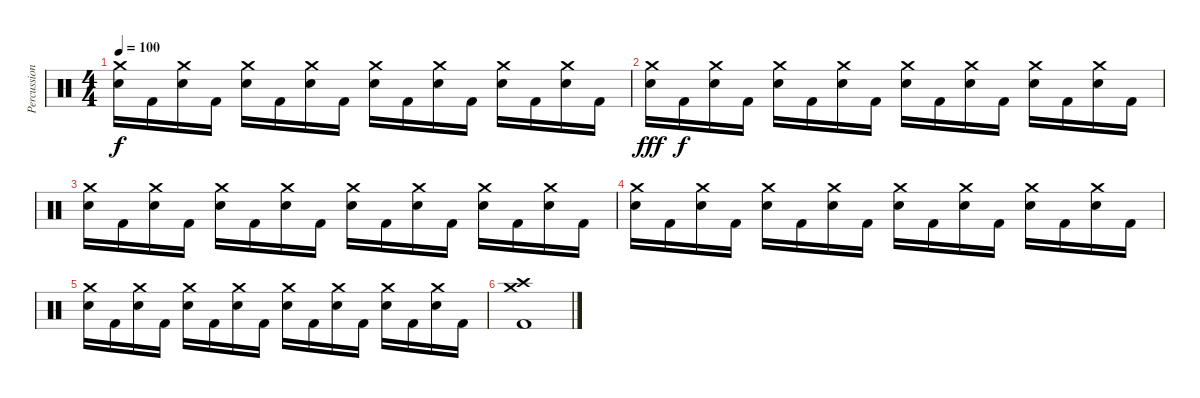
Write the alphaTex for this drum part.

\track ("Percussion" "Percussion") {instrument percussion}
\staff {score}
\articulation defaults
\ts (4 4)
\tempo 100
\clef neutral
\ks c
("Crash medium (hit)" "Snare (hit) 2").16{dy f} "Kick (hit) 2".16 ("Crash medium (hit)" "Snare (hit) 2").16 "Kick (hit) 2".16 ("Crash medium (hit)" "Snare (hit) 2").16 "Kick (hit) 2".16 ("Crash medium (hit)" "Snare (hit) 2").16 "Kick (hit) 2".16 ("Crash medium (hit)" "Snare (hit) 2").16 "Kick (hit) 2".16 ("Crash medium (hit)" "Snare (hit) 2").16 "Kick (hit) 2".16 ("Crash medium (hit)" "Snare (hit) 2").16 "Kick (hit) 2".16 ("Crash medium (hit)" "Snare (hit) 2").16 "Kick (hit) 2".16 |
("Crash medium (hit)" "Snare (hit) 2").16{dy fff} "Kick (hit) 2".16{dy f} ("Crash medium (hit)" "Snare (hit) 2").16 "Kick (hit) 2".16 ("Crash medium (hit)" "Snare (hit) 2").16 "Kick (hit) 2".16 ("Crash medium (hit)" "Snare (hit) 2").16 "Kick (hit) 2".16 ("Crash medium (hit)" "Snare (hit) 2").16 "Kick (hit) 2".16 ("Crash medium (hit)" "Snare (hit) 2").16 "Kick (hit) 2".16 ("Crash medium (hit)" "Snare (hit) 2").16 "Kick (hit) 2".16 ("Crash medium (hit)" "Snare (hit) 2").16 "Kick (hit) 2".16 |
("Crash medium (hit)" "Snare (hit) 2").16 "Kick (hit) 2".16 ("Crash medium (hit)" "Snare (hit) 2").16 "Kick (hit) 2".16 ("Crash medium (hit)" "Snare (hit) 2").16 "Kick (hit) 2".16 ("Crash medium (hit)" "Snare (hit) 2").16 "Kick (hit) 2".16 ("Crash medium (hit)" "Snare (hit) 2").16 "Kick (hit) 2".16 ("Crash medium (hit)" "Snare (hit) 2").16 "Kick (hit) 2".16 ("Crash medium (hit)" "Snare (hit) 2").16 "Kick (hit) 2".16 ("Crash medium (hit)" "Snare (hit) 2").16 "Kick (hit) 2".16 |
("Crash medium (hit)" "Snare (hit) 2").16 "Kick (hit) 2".16 ("Crash medium (hit)" "Snare (hit) 2").16 "Kick (hit) 2".16 ("Crash medium (hit)" "Snare (hit) 2").16 "Kick (hit) 2".16 ("Crash medium (hit)" "Snare (hit) 2").16 "Kick (hit) 2".16 ("Crash medium (hit)" "Snare (hit) 2").16 "Kick (hit) 2".16 ("Crash medium (hit)" "Snare (hit) 2").16 "Kick (hit) 2".16 ("Crash medium (hit)" "Snare (hit) 2").16 "Kick (hit) 2".16 ("Crash medium (hit)" "Snare (hit) 2").16 "Kick (hit) 2".16 |
("Crash medium (hit)" "Snare (hit) 2").16 "Kick (hit) 2".16 ("Crash medium (hit)" "Snare (hit) 2").16 "Kick (hit) 2".16 ("Crash medium (hit)" "Snare (hit) 2").16 "Kick (hit) 2".16 ("Crash medium (hit)" "Snare (hit) 2").16 "Kick (hit) 2".16 ("Crash medium (hit)" "Snare (hit) 2").16 "Kick (hit) 2".16 ("Crash medium (hit)" "Snare (hit) 2").16 "Kick (hit) 2".16 ("Crash medium (hit)" "Snare (hit) 2").16 "Kick (hit) 2".16 ("Crash medium (hit)" "Snare (hit) 2").16 "Kick (hit) 2".16 |
("Crash medium (hit)" "Crash high (hit)" "Kick (hit) 2").1
